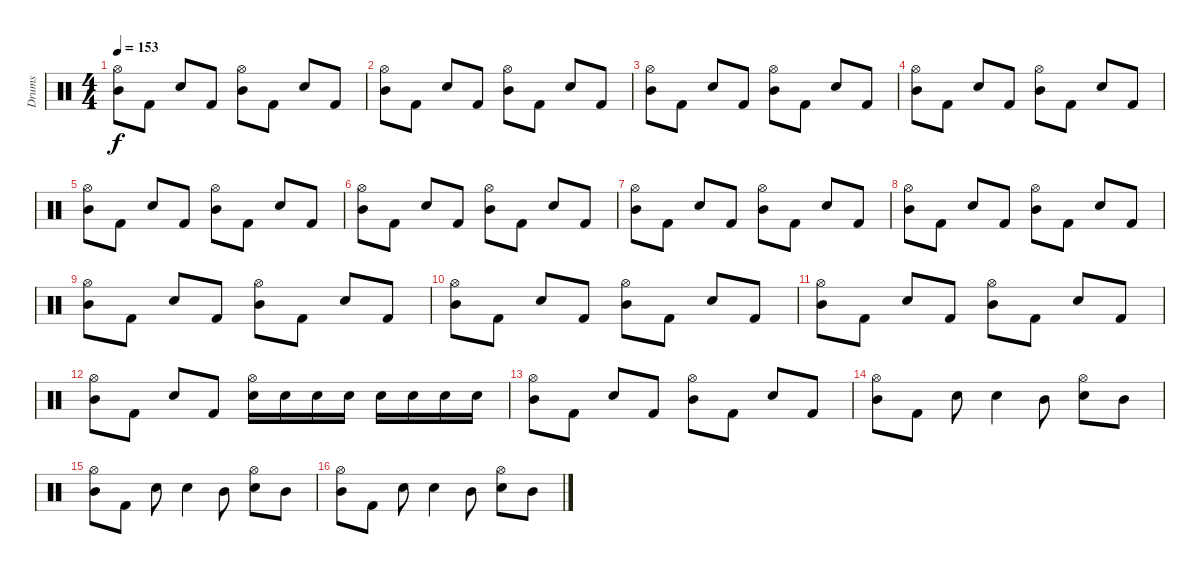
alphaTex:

\track ("Drums" "Drums") {instrument percussion}
\staff {score}
\articulation defaults
\ts (4 4)
\tempo 153
\clef neutral
\ks c
("Hi-Hat (open)" "Mid Tom (hit)").8{dy f} "Kick (hit) 2".8 "Electric Snare (hit)".8 "Kick (hit) 2".8 ("Hi-Hat (open)" "Mid Tom (hit)").8 "Kick (hit) 2".8 "Electric Snare (hit)".8 "Kick (hit) 2".8 |
("Hi-Hat (open)" "Mid Tom (hit)").8 "Kick (hit) 2".8 "Electric Snare (hit)".8 "Kick (hit) 2".8 ("Hi-Hat (open)" "Mid Tom (hit)").8 "Kick (hit) 2".8 "Electric Snare (hit)".8 "Kick (hit) 2".8 |
("Hi-Hat (open)" "Mid Tom (hit)").8 "Kick (hit) 2".8 "Electric Snare (hit)".8 "Kick (hit) 2".8 ("Hi-Hat (open)" "Mid Tom (hit)").8 "Kick (hit) 2".8 "Electric Snare (hit)".8 "Kick (hit) 2".8 |
("Hi-Hat (open)" "Mid Tom (hit)").8 "Kick (hit) 2".8 "Electric Snare (hit)".8 "Kick (hit) 2".8 ("Hi-Hat (open)" "Mid Tom (hit)").8 "Kick (hit) 2".8 "Electric Snare (hit)".8 "Kick (hit) 2".8 |
("Hi-Hat (open)" "Mid Tom (hit)").8 "Kick (hit) 2".8 "Electric Snare (hit)".8 "Kick (hit) 2".8 ("Hi-Hat (open)" "Mid Tom (hit)").8 "Kick (hit) 2".8 "Electric Snare (hit)".8 "Kick (hit) 2".8 |
("Hi-Hat (open)" "Mid Tom (hit)").8 "Kick (hit) 2".8 "Electric Snare (hit)".8 "Kick (hit) 2".8 ("Hi-Hat (open)" "Mid Tom (hit)").8 "Kick (hit) 2".8 "Electric Snare (hit)".8 "Kick (hit) 2".8 |
("Hi-Hat (open)" "Mid Tom (hit)").8 "Kick (hit) 2".8 "Electric Snare (hit)".8 "Kick (hit) 2".8 ("Hi-Hat (open)" "Mid Tom (hit)").8 "Kick (hit) 2".8 "Electric Snare (hit)".8 "Kick (hit) 2".8 |
("Hi-Hat (open)" "Mid Tom (hit)").8 "Kick (hit) 2".8 "Electric Snare (hit)".8 "Kick (hit) 2".8 ("Hi-Hat (open)" "Mid Tom (hit)").8 "Kick (hit) 2".8 "Electric Snare (hit)".8 "Kick (hit) 2".8 |
("Hi-Hat (open)" "Mid Tom (hit)").8 "Kick (hit) 2".8 "Electric Snare (hit)".8 "Kick (hit) 2".8 ("Hi-Hat (open)" "Mid Tom (hit)").8 "Kick (hit) 2".8 "Electric Snare (hit)".8 "Kick (hit) 2".8 |
("Hi-Hat (open)" "Mid Tom (hit)").8 "Kick (hit) 2".8 "Electric Snare (hit)".8 "Kick (hit) 2".8 ("Hi-Hat (open)" "Mid Tom (hit)").8 "Kick (hit) 2".8 "Electric Snare (hit)".8 "Kick (hit) 2".8 |
("Hi-Hat (open)" "Mid Tom (hit)").8 "Kick (hit) 2".8 "Electric Snare (hit)".8 "Kick (hit) 2".8 ("Hi-Hat (open)" "Mid Tom (hit)").8 "Kick (hit) 2".8 "Electric Snare (hit)".8 "Kick (hit) 2".8 |
("Hi-Hat (open)" "Mid Tom (hit)").8 "Kick (hit) 2".8 "Electric Snare (hit)".8 "Kick (hit) 2".8 ("Hi-Hat (open)" "Electric Snare (hit)").16 "Electric Snare (hit)".16 "Electric Snare (hit)".16 "Electric Snare (hit)".16 "Electric Snare (hit)".16 "Electric Snare (hit)".16 "Electric Snare (hit)".16 "Electric Snare (hit)".16 |
("Hi-Hat (open)" "Mid Tom (hit)").8 "Kick (hit) 2".8 "Electric Snare (hit)".8 "Kick (hit) 2".8 ("Hi-Hat (open)" "Mid Tom (hit)").8 "Kick (hit) 2".8 "Electric Snare (hit)".8 "Kick (hit) 2".8 |
("Hi-Hat (open)" "Mid Tom (hit)").8 "Kick (hit) 2".8 "Electric Snare (hit)".8 "Electric Snare (hit)".4 "Mid Tom (hit)".8 ("Hi-Hat (open)" "Electric Snare (hit)").8 "Mid Tom (hit)".8 |
("Hi-Hat (open)" "Mid Tom (hit)").8 "Kick (hit) 2".8 "Electric Snare (hit)".8 "Electric Snare (hit)".4 "Mid Tom (hit)".8 ("Hi-Hat (open)" "Electric Snare (hit)").8 "Mid Tom (hit)".8 |
("Hi-Hat (open)" "Mid Tom (hit)").8 "Kick (hit) 2".8 "Electric Snare (hit)".8 "Electric Snare (hit)".4 "Mid Tom (hit)".8 ("Hi-Hat (open)" "Electric Snare (hit)").8 "Mid Tom (hit)".8
